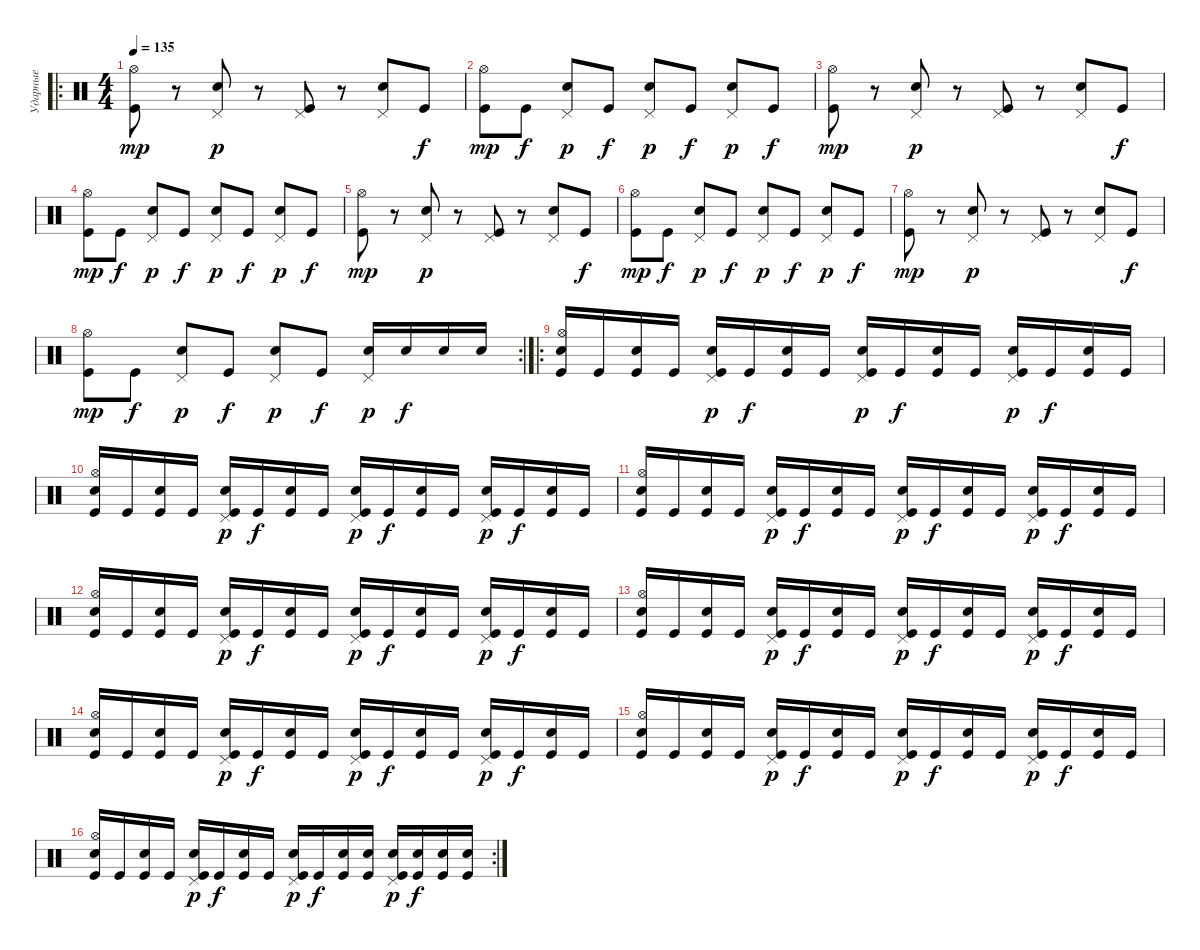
\track ("Ударные" "Ударные") {instrument percussion}
\staff {score}
\articulation defaults
\ro
\ts (4 4)
\tempo 135
\clef neutral
\ks c
("Kick (hit)" "Hi-Hat (open)").8{dy mp} r.8 ("Snare (hit) 2" "Pedal Hi-Hat (hit)").8{dy p} r.8 ("Kick (hit)" "Pedal Hi-Hat (hit)").8 r.8 ("Snare (hit) 2" "Pedal Hi-Hat (hit)").8 "Kick (hit)".8{dy f} |
("Kick (hit)" "Hi-Hat (open)").8{dy mp} "Kick (hit)".8{dy f} ("Snare (hit) 2" "Pedal Hi-Hat (hit)").8{dy p} "Kick (hit)".8{dy f} ("Snare (hit) 2" "Pedal Hi-Hat (hit)").8{dy p} "Kick (hit)".8{dy f} ("Snare (hit) 2" "Pedal Hi-Hat (hit)").8{dy p} "Kick (hit)".8{dy f} |
("Kick (hit)" "Hi-Hat (open)").8{dy mp} r.8 ("Snare (hit) 2" "Pedal Hi-Hat (hit)").8{dy p} r.8 ("Kick (hit)" "Pedal Hi-Hat (hit)").8 r.8 ("Snare (hit) 2" "Pedal Hi-Hat (hit)").8 "Kick (hit)".8{dy f} |
("Kick (hit)" "Hi-Hat (open)").8{dy mp} "Kick (hit)".8{dy f} ("Snare (hit) 2" "Pedal Hi-Hat (hit)").8{dy p} "Kick (hit)".8{dy f} ("Snare (hit) 2" "Pedal Hi-Hat (hit)").8{dy p} "Kick (hit)".8{dy f} ("Snare (hit) 2" "Pedal Hi-Hat (hit)").8{dy p} "Kick (hit)".8{dy f} |
("Kick (hit)" "Hi-Hat (open)").8{dy mp} r.8 ("Snare (hit) 2" "Pedal Hi-Hat (hit)").8{dy p} r.8 ("Kick (hit)" "Pedal Hi-Hat (hit)").8 r.8 ("Snare (hit) 2" "Pedal Hi-Hat (hit)").8 "Kick (hit)".8{dy f} |
("Kick (hit)" "Hi-Hat (open)").8{dy mp} "Kick (hit)".8{dy f} ("Snare (hit) 2" "Pedal Hi-Hat (hit)").8{dy p} "Kick (hit)".8{dy f} ("Snare (hit) 2" "Pedal Hi-Hat (hit)").8{dy p} "Kick (hit)".8{dy f} ("Snare (hit) 2" "Pedal Hi-Hat (hit)").8{dy p} "Kick (hit)".8{dy f} |
("Kick (hit)" "Hi-Hat (open)").8{dy mp} r.8 ("Snare (hit) 2" "Pedal Hi-Hat (hit)").8{dy p} r.8 ("Kick (hit)" "Pedal Hi-Hat (hit)").8 r.8 ("Snare (hit) 2" "Pedal Hi-Hat (hit)").8 "Kick (hit)".8{dy f} |
\rc 2
("Kick (hit)" "Hi-Hat (open)").8{dy mp} "Kick (hit)".8{dy f} ("Snare (hit) 2" "Pedal Hi-Hat (hit)").8{dy p} "Kick (hit)".8{dy f} ("Snare (hit) 2" "Pedal Hi-Hat (hit)").8{dy p} "Kick (hit)".8{dy f} ("Snare (hit) 2" "Pedal Hi-Hat (hit)").16{dy p} "Snare (hit) 2".16{dy f} "Snare (hit) 2".16 "Snare (hit) 2".16 |
\ro
("Kick (hit)" "Snare (hit) 2" "Hi-Hat (open)").16 "Kick (hit)".16 ("Kick (hit)" "Snare (hit) 2").16 "Kick (hit)".16 ("Kick (hit)" "Snare (hit) 2" "Pedal Hi-Hat (hit)").16{dy p} "Kick (hit)".16{dy f} ("Kick (hit)" "Snare (hit) 2").16 "Kick (hit)".16 ("Kick (hit)" "Snare (hit) 2" "Pedal Hi-Hat (hit)").16{dy p} "Kick (hit)".16{dy f} ("Kick (hit)" "Snare (hit) 2").16 "Kick (hit)".16 ("Kick (hit)" "Snare (hit) 2" "Pedal Hi-Hat (hit)").16{dy p} "Kick (hit)".16{dy f} ("Kick (hit)" "Snare (hit) 2").16 "Kick (hit)".16 |
("Kick (hit)" "Snare (hit) 2" "Hi-Hat (open)").16 "Kick (hit)".16 ("Kick (hit)" "Snare (hit) 2").16 "Kick (hit)".16 ("Kick (hit)" "Snare (hit) 2" "Pedal Hi-Hat (hit)").16{dy p} "Kick (hit)".16{dy f} ("Kick (hit)" "Snare (hit) 2").16 "Kick (hit)".16 ("Kick (hit)" "Snare (hit) 2" "Pedal Hi-Hat (hit)").16{dy p} "Kick (hit)".16{dy f} ("Kick (hit)" "Snare (hit) 2").16 "Kick (hit)".16 ("Kick (hit)" "Snare (hit) 2" "Pedal Hi-Hat (hit)").16{dy p} "Kick (hit)".16{dy f} ("Kick (hit)" "Snare (hit) 2").16 "Kick (hit)".16 |
("Kick (hit)" "Snare (hit) 2" "Hi-Hat (open)").16 "Kick (hit)".16 ("Kick (hit)" "Snare (hit) 2").16 "Kick (hit)".16 ("Kick (hit)" "Snare (hit) 2" "Pedal Hi-Hat (hit)").16{dy p} "Kick (hit)".16{dy f} ("Kick (hit)" "Snare (hit) 2").16 "Kick (hit)".16 ("Kick (hit)" "Snare (hit) 2" "Pedal Hi-Hat (hit)").16{dy p} "Kick (hit)".16{dy f} ("Kick (hit)" "Snare (hit) 2").16 "Kick (hit)".16 ("Kick (hit)" "Snare (hit) 2" "Pedal Hi-Hat (hit)").16{dy p} "Kick (hit)".16{dy f} ("Kick (hit)" "Snare (hit) 2").16 "Kick (hit)".16 |
("Kick (hit)" "Snare (hit) 2" "Hi-Hat (open)").16 "Kick (hit)".16 ("Kick (hit)" "Snare (hit) 2").16 "Kick (hit)".16 ("Kick (hit)" "Snare (hit) 2" "Pedal Hi-Hat (hit)").16{dy p} "Kick (hit)".16{dy f} ("Kick (hit)" "Snare (hit) 2").16 "Kick (hit)".16 ("Kick (hit)" "Snare (hit) 2" "Pedal Hi-Hat (hit)").16{dy p} "Kick (hit)".16{dy f} ("Kick (hit)" "Snare (hit) 2").16 "Kick (hit)".16 ("Kick (hit)" "Snare (hit) 2" "Pedal Hi-Hat (hit)").16{dy p} "Kick (hit)".16{dy f} ("Kick (hit)" "Snare (hit) 2").16 "Kick (hit)".16 |
("Kick (hit)" "Snare (hit) 2" "Hi-Hat (open)").16 "Kick (hit)".16 ("Kick (hit)" "Snare (hit) 2").16 "Kick (hit)".16 ("Kick (hit)" "Snare (hit) 2" "Pedal Hi-Hat (hit)").16{dy p} "Kick (hit)".16{dy f} ("Kick (hit)" "Snare (hit) 2").16 "Kick (hit)".16 ("Kick (hit)" "Snare (hit) 2" "Pedal Hi-Hat (hit)").16{dy p} "Kick (hit)".16{dy f} ("Kick (hit)" "Snare (hit) 2").16 "Kick (hit)".16 ("Kick (hit)" "Snare (hit) 2" "Pedal Hi-Hat (hit)").16{dy p} "Kick (hit)".16{dy f} ("Kick (hit)" "Snare (hit) 2").16 "Kick (hit)".16 |
("Kick (hit)" "Snare (hit) 2" "Hi-Hat (open)").16 "Kick (hit)".16 ("Kick (hit)" "Snare (hit) 2").16 "Kick (hit)".16 ("Kick (hit)" "Snare (hit) 2" "Pedal Hi-Hat (hit)").16{dy p} "Kick (hit)".16{dy f} ("Kick (hit)" "Snare (hit) 2").16 "Kick (hit)".16 ("Kick (hit)" "Snare (hit) 2" "Pedal Hi-Hat (hit)").16{dy p} "Kick (hit)".16{dy f} ("Kick (hit)" "Snare (hit) 2").16 "Kick (hit)".16 ("Kick (hit)" "Snare (hit) 2" "Pedal Hi-Hat (hit)").16{dy p} "Kick (hit)".16{dy f} ("Kick (hit)" "Snare (hit) 2").16 "Kick (hit)".16 |
("Kick (hit)" "Snare (hit) 2" "Hi-Hat (open)").16 "Kick (hit)".16 ("Kick (hit)" "Snare (hit) 2").16 "Kick (hit)".16 ("Kick (hit)" "Snare (hit) 2" "Pedal Hi-Hat (hit)").16{dy p} "Kick (hit)".16{dy f} ("Kick (hit)" "Snare (hit) 2").16 "Kick (hit)".16 ("Kick (hit)" "Snare (hit) 2" "Pedal Hi-Hat (hit)").16{dy p} "Kick (hit)".16{dy f} ("Kick (hit)" "Snare (hit) 2").16 "Kick (hit)".16 ("Kick (hit)" "Snare (hit) 2" "Pedal Hi-Hat (hit)").16{dy p} "Kick (hit)".16{dy f} ("Kick (hit)" "Snare (hit) 2").16 "Kick (hit)".16 |
\rc 2
("Kick (hit)" "Snare (hit) 2" "Hi-Hat (open)").16 "Kick (hit)".16 ("Kick (hit)" "Snare (hit) 2").16 "Kick (hit)".16 ("Kick (hit)" "Snare (hit) 2" "Pedal Hi-Hat (hit)").16{dy p} "Kick (hit)".16{dy f} ("Kick (hit)" "Snare (hit) 2").16 "Kick (hit)".16 ("Kick (hit)" "Snare (hit) 2" "Pedal Hi-Hat (hit)").16{dy p} "Kick (hit)".16{dy f} ("Kick (hit)" "Snare (hit) 2").16 ("Kick (hit)" "Snare (hit) 2").16 ("Kick (hit)" "Snare (hit) 2" "Pedal Hi-Hat (hit)").16{dy p} ("Kick (hit)" "Snare (hit) 2").16{dy f} ("Kick (hit)" "Snare (hit) 2").16 ("Kick (hit)" "Snare (hit) 2").16
